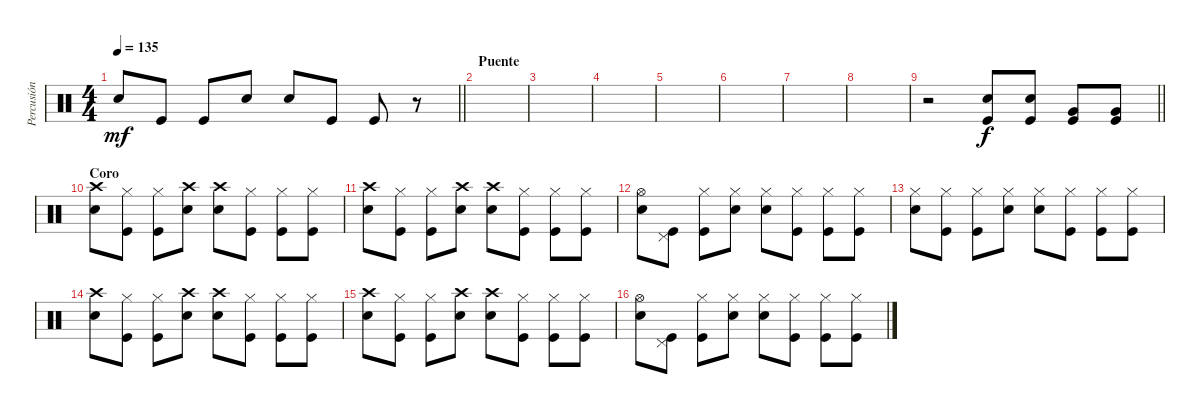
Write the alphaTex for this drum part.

\track ("Percusión" "Percusión") {instrument percussion}
\staff {score}
\articulation defaults
\ts (4 4)
\tempo 135
\clef neutral
\barLineRight lightlight
\ks c "Snare (hit) 2".8{dy mf} "Kick (hit)".8 "Kick (hit)".8 "Snare (hit) 2".8 "Snare (hit) 2".8 "Kick (hit)".8 "Kick (hit)".8
r.8 |
\section ("" "Puente")
|
|
|
|
|
|
|
\barLineRight lightlight
r.2 ("Snare (hit) 2" "Kick (hit)").8{dy f} ("Snare (hit) 2" "Kick (hit)").8 ("Very Low Tom (hit)" "Kick (hit)").8 ("Very Low Tom (hit)" "Kick (hit)").8 |
\section ("" "Coro")
("Crash high (hit)" "Snare (hit) 2").8 ("Hi-Hat (closed)" "Kick (hit)").8 ("Hi-Hat (closed)" "Kick (hit)").8 ("Crash high (hit)" "Snare (hit) 2").8 ("Crash high (hit)" "Snare (hit) 2").8 ("Hi-Hat (closed)" "Kick (hit)").8 ("Hi-Hat (closed)" "Kick (hit)").8 ("Hi-Hat (closed)" "Kick (hit)").8 |
("Crash high (hit)" "Snare (hit) 2").8 ("Hi-Hat (closed)" "Kick (hit)").8 ("Hi-Hat (closed)" "Kick (hit)").8 ("Crash high (hit)" "Snare (hit) 2").8 ("Crash high (hit)" "Snare (hit) 2").8 ("Hi-Hat (closed)" "Kick (hit)").8 ("Hi-Hat (closed)" "Kick (hit)").8 ("Hi-Hat (closed)" "Kick (hit)").8 |
("Hi-Hat (open)" "Snare (hit) 2").8 ("Pedal Hi-Hat (hit)" "Kick (hit)").8 ("Hi-Hat (closed)" "Kick (hit)").8 ("Hi-Hat (closed)" "Snare (hit) 2").8 ("Hi-Hat (closed)" "Snare (hit) 2").8 ("Hi-Hat (closed)" "Kick (hit)").8 ("Hi-Hat (closed)" "Kick (hit)").8 ("Hi-Hat (closed)" "Kick (hit)").8 |
("Hi-Hat (closed)" "Snare (hit) 2").8 ("Hi-Hat (closed)" "Kick (hit)").8 ("Hi-Hat (closed)" "Kick (hit)").8 ("Hi-Hat (closed)" "Snare (hit) 2").8 ("Hi-Hat (closed)" "Snare (hit) 2").8 ("Hi-Hat (closed)" "Kick (hit)").8 ("Hi-Hat (closed)" "Kick (hit)").8 ("Hi-Hat (closed)" "Kick (hit)").8 |
("Crash high (hit)" "Snare (hit) 2").8 ("Hi-Hat (closed)" "Kick (hit)").8 ("Hi-Hat (closed)" "Kick (hit)").8 ("Crash high (hit)" "Snare (hit) 2").8 ("Crash high (hit)" "Snare (hit) 2").8 ("Hi-Hat (closed)" "Kick (hit)").8 ("Hi-Hat (closed)" "Kick (hit)").8 ("Hi-Hat (closed)" "Kick (hit)").8 |
("Crash high (hit)" "Snare (hit) 2").8 ("Hi-Hat (closed)" "Kick (hit)").8 ("Hi-Hat (closed)" "Kick (hit)").8 ("Crash high (hit)" "Snare (hit) 2").8 ("Crash high (hit)" "Snare (hit) 2").8 ("Hi-Hat (closed)" "Kick (hit)").8 ("Hi-Hat (closed)" "Kick (hit)").8 ("Hi-Hat (closed)" "Kick (hit)").8 |
("Hi-Hat (open)" "Snare (hit) 2").8 ("Pedal Hi-Hat (hit)" "Kick (hit)").8 ("Hi-Hat (closed)" "Kick (hit)").8 ("Hi-Hat (closed)" "Snare (hit) 2").8 ("Hi-Hat (closed)" "Snare (hit) 2").8 ("Hi-Hat (closed)" "Kick (hit)").8 ("Hi-Hat (closed)" "Kick (hit)").8 ("Hi-Hat (closed)" "Kick (hit)").8
